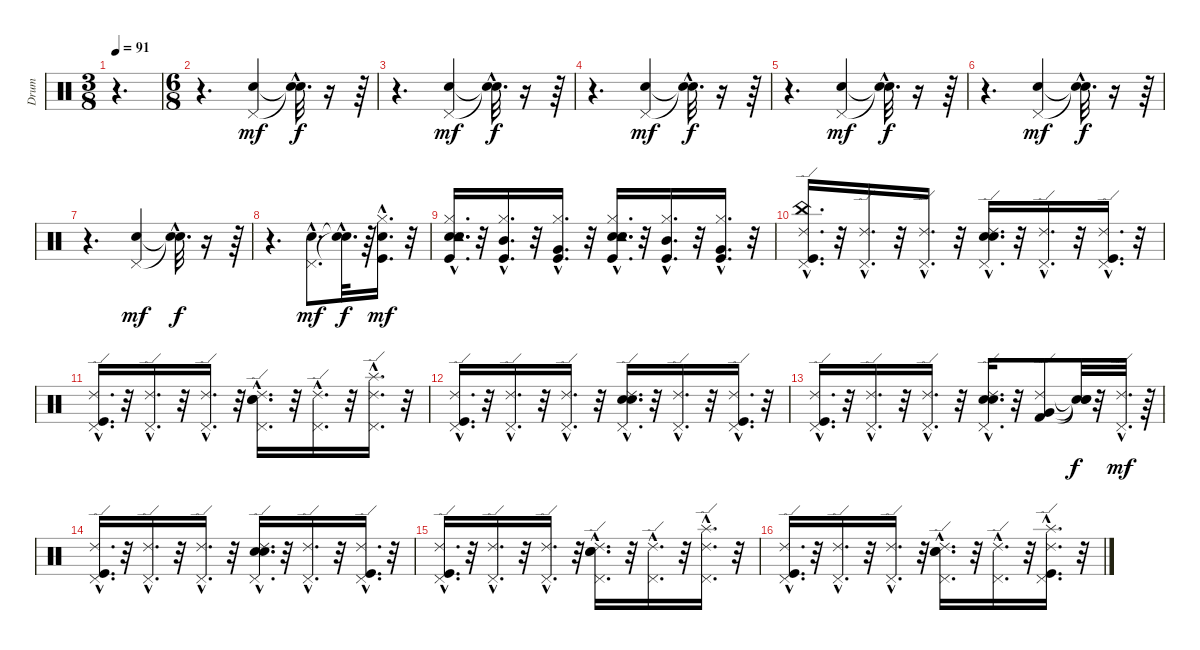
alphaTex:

\track ("Drum" "Drum") {instrument percussion}
\staff {score}
\articulation defaults
\ts (3 8)
\tempo 91
\clef neutral
\ks c
r.4{d dy mf} |
\ts (6 8)
r.4{d} ("Hand Clap (hit)" "Pedal Hi-Hat (hit)").4 ("Snare (hit)"{hac t} "Snare (hit)"{hac t}).32{d dy f} r.16 r.64 |
r.4{d} ("Pedal Hi-Hat (hit)" "Hand Clap (hit)").4{dy mf} ("Snare (hit)"{hac t} "Snare (hit)"{hac t}).32{d dy f} r.16 r.64 |
r.4{d} ("Hand Clap (hit)" "Pedal Hi-Hat (hit)").4{dy mf} ("Snare (hit)"{hac t} "Snare (hit)"{hac t}).32{d dy f} r.16 r.64 |
r.4{d} ("Hand Clap (hit)" "Pedal Hi-Hat (hit)").4{dy mf} ("Snare (hit)"{hac t} "Snare (hit)"{hac t}).32{d dy f} r.16 r.64 |
r.4{d} ("Hand Clap (hit)" "Pedal Hi-Hat (hit)").4{dy mf} ("Snare (hit)"{hac t} "Snare (hit)"{hac t}).32{d dy f} r.16 r.64 |
r.4{d} ("Hand Clap (hit)" "Pedal Hi-Hat (hit)").4{dy mf} ("Snare (hit)"{hac t} "Snare (hit)"{hac t}).32{d dy f} r.16 r.64 |
r.4{d} ("Hand Clap (hit)"{hac} "Pedal Hi-Hat (hit)"{hac}).8{d dy mf} ("Snare (hit)"{hac t} "Snare (hit)"{hac t}).32{d dy f} r.64 ("Electric Snare (hit)"{hac} "Kick (hit)"{hac} "Hi-Hat (closed)"{hac}).16{d dy mf} r.32 |
("Electric Snare (hit)"{hac} "Kick (hit)"{hac} "Hi-Hat (closed)"{hac} "Tambourine (hit)"{hac} "Snare (hit) 2"{hac}).16{d} r.32 ("Mid Tom (hit)"{hac} "Hi-Hat (closed)"{hac} "Kick (hit)"{hac}).16{d} r.32 ("Very Low Tom (hit)"{hac} "Hi-Hat (closed)"{hac} "Kick (hit)"{hac}).16{d} r.32 ("Electric Snare (hit)"{hac} "Kick (hit)"{hac} "Tambourine (hit)"{hac} "Hi-Hat (closed)"{hac} "Snare (hit) 2"{hac}).16{d} r.32 ("Mid Tom (hit)"{hac} "Hi-Hat (closed)"{hac} "Kick (hit)"{hac}).16{d} r.32 ("Very Low Tom (hit)"{hac} "Hi-Hat (closed)"{hac} "Kick (hit)"{hac}).16{d} r.32 |
("China (hit)"{hac} "Ride (edge) 2"{hac} "Pedal Hi-Hat (hit)"{hac} "Kick (hit)"{hac}).16{d} r.32 ("Ride (edge) 2"{hac} "Pedal Hi-Hat (hit)"{hac}).16{d} r.32 ("Ride (edge) 2"{hac} "Pedal Hi-Hat (hit)"{hac}).16{d} r.32 ("Hand Clap (hit)"{hac} "Ride (edge) 2"{hac} "Snare (hit) 2"{hac} "Pedal Hi-Hat (hit)"{hac}).16{d} r.32 ("Ride (edge) 2"{hac} "Pedal Hi-Hat (hit)"{hac}).16{d} r.32 ("Kick (hit)"{hac} "Ride (edge) 2"{hac} "Pedal Hi-Hat (hit)"{hac}).16{d} r.32 |
("Kick (hit)"{hac} "Pedal Hi-Hat (hit)"{hac} "Ride (edge) 2"{hac}).16{d} r.32 ("Pedal Hi-Hat (hit)"{hac} "Ride (edge) 2"{hac}).16{d} r.32 ("Pedal Hi-Hat (hit)"{hac} "Ride (edge) 2"{hac}).16{d} r.32 ("Pedal Hi-Hat (hit)"{hac} "Snare (hit) 2"{hac} "Ride (edge) 2"{hac} "Hand Clap (hit)"{hac}).16{d} r.32 ("Pedal Hi-Hat (hit)"{hac} "Ride (edge) 2"{hac}).16{d} r.32 ("Splash (hit)"{hac} "Pedal Hi-Hat (hit)"{hac} "Ride (edge) 2"{hac}).16{d} r.32 |
("Kick (hit)"{hac} "Pedal Hi-Hat (hit)"{hac} "Ride (edge) 2"{hac}).16{d} r.32 ("Pedal Hi-Hat (hit)"{hac} "Ride (edge) 2"{hac}).16{d} r.32 ("Pedal Hi-Hat (hit)"{hac} "Ride (edge) 2"{hac}).16{d} r.32 ("Pedal Hi-Hat (hit)"{hac} "Snare (hit) 2"{hac} "Ride (edge) 2"{hac} "Hand Clap (hit)"{hac}).16{d} r.32 ("Pedal Hi-Hat (hit)"{hac} "Ride (edge) 2"{hac}).16{d} r.32 ("Kick (hit)"{hac} "Pedal Hi-Hat (hit)"{hac} "Ride (edge) 2"{hac}).16{d} r.32 |
("Kick (hit)"{hac} "Pedal Hi-Hat (hit)"{hac} "Ride (edge) 2"{hac}).16{d} r.32 ("Pedal Hi-Hat (hit)"{hac} "Ride (edge) 2"{hac}).16{d} r.32 ("Pedal Hi-Hat (hit)"{hac} "Ride (edge) 2"{hac}).16{d} r.32 ("Snare (hit) 2"{hac} "Pedal Hi-Hat (hit)"{hac} "Hand Clap (hit)"{hac} "Ride (edge) 2"{hac}).16{d} r.32 ("Kick (hit) 2" "Very Low Tom (hit)" "Ride (edge) 2").8 ("Snare (hit)"{t} "Snare (hit)"{t} "Snare (hit)"{t}).32{dy f} r.32 ("Ride (edge) 2"{hac} "Pedal Hi-Hat (hit)"{hac}).32{d dy mf} r.64 |
("Kick (hit)"{hac} "Pedal Hi-Hat (hit)"{hac} "Ride (edge) 2"{hac}).16{d} r.32 ("Pedal Hi-Hat (hit)"{hac} "Ride (edge) 2"{hac}).16{d} r.32 ("Pedal Hi-Hat (hit)"{hac} "Ride (edge) 2"{hac}).16{d} r.32 ("Pedal Hi-Hat (hit)"{hac} "Snare (hit) 2"{hac} "Ride (edge) 2"{hac} "Hand Clap (hit)"{hac}).16{d} r.32 ("Pedal Hi-Hat (hit)"{hac} "Ride (edge) 2"{hac}).16{d} r.32 ("Kick (hit)"{hac} "Pedal Hi-Hat (hit)"{hac} "Ride (edge) 2"{hac}).16{d} r.32 |
("Ride (edge) 2"{hac} "Pedal Hi-Hat (hit)"{hac} "Kick (hit)"{hac}).16{d} r.32 ("Ride (edge) 2"{hac} "Pedal Hi-Hat (hit)"{hac}).16{d} r.32 ("Ride (edge) 2"{hac} "Pedal Hi-Hat (hit)"{hac}).16{d} r.32 ("Hand Clap (hit)"{hac} "Ride (edge) 2"{hac} "Snare (hit) 2"{hac} "Pedal Hi-Hat (hit)"{hac}).16{d} r.32 ("Ride (edge) 2"{hac} "Pedal Hi-Hat (hit)"{hac}).16{d} r.32 ("Ride (edge) 2"{hac} "Pedal Hi-Hat (hit)"{hac} "Splash (hit)"{hac}).16{d} r.32 |
("Ride (edge) 2"{hac} "Pedal Hi-Hat (hit)"{hac} "Kick (hit)"{hac}).16{d} r.32 ("Ride (edge) 2"{hac} "Pedal Hi-Hat (hit)"{hac}).16{d} r.32 ("Ride (edge) 2"{hac} "Pedal Hi-Hat (hit)"{hac}).16{d} r.32 ("Hand Clap (hit)"{hac} "Ride (edge) 2"{hac} "Snare (hit) 2"{hac} "Pedal Hi-Hat (hit)"{hac}).16{d} r.32 ("Ride (edge) 2"{hac} "Pedal Hi-Hat (hit)"{hac}).16{d} r.32 ("Kick (hit)"{hac} "Splash (hit)"{hac} "Ride (edge) 2"{hac} "Pedal Hi-Hat (hit)"{hac}).16{d} r.32
